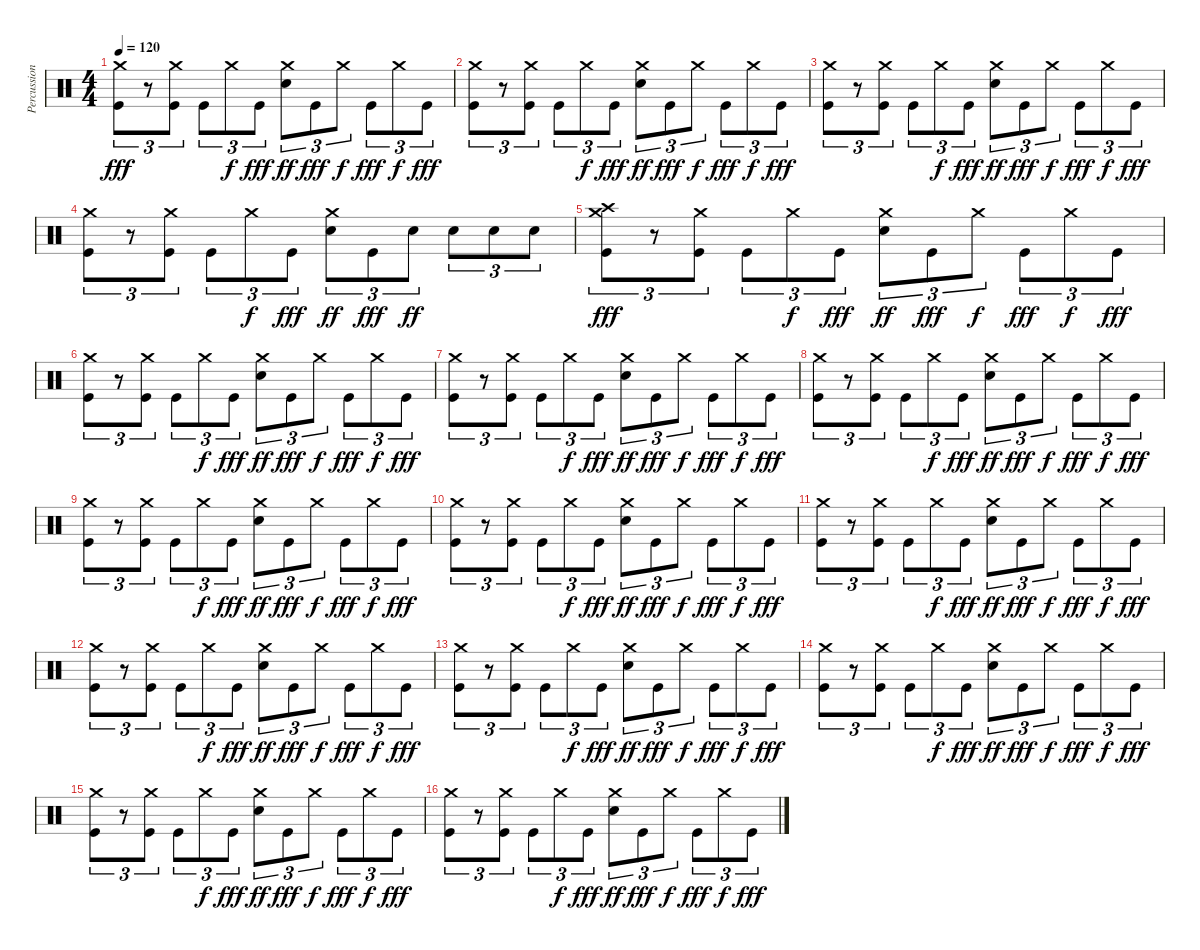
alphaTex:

\track ("Percussion" "Percussion") {instrument percussion}
\staff {score}
\articulation defaults
\ts (4 4)
\tempo 120
\clef neutral
\ks c
("Crash medium (hit)" "Kick (hit)").8{tu (3 2) dy fff} r.8{tu (3 2)} ("Crash medium (hit)" "Kick (hit)").8{tu (3 2)} "Kick (hit)".8{tu (3 2)} "Crash medium (hit)".8{tu (3 2) dy f} "Kick (hit)".8{tu (3 2) dy fff} ("Crash medium (hit)" "Snare (hit) 2").8{tu (3 2) dy ff} "Kick (hit)".8{tu (3 2) dy fff} "Crash medium (hit)".8{tu (3 2) dy f} "Kick (hit)".8{tu (3 2) dy fff} "Crash medium (hit)".8{tu (3 2) dy f} "Kick (hit)".8{tu (3 2) dy fff} |
("Crash medium (hit)" "Kick (hit)").8{tu (3 2)} r.8{tu (3 2)} ("Crash medium (hit)" "Kick (hit)").8{tu (3 2)} "Kick (hit)".8{tu (3 2)} "Crash medium (hit)".8{tu (3 2) dy f} "Kick (hit)".8{tu (3 2) dy fff} ("Crash medium (hit)" "Snare (hit) 2").8{tu (3 2) dy ff} "Kick (hit)".8{tu (3 2) dy fff} "Crash medium (hit)".8{tu (3 2) dy f} "Kick (hit)".8{tu (3 2) dy fff} "Crash medium (hit)".8{tu (3 2) dy f} "Kick (hit)".8{tu (3 2) dy fff} |
("Crash medium (hit)" "Kick (hit)").8{tu (3 2)} r.8{tu (3 2)} ("Crash medium (hit)" "Kick (hit)").8{tu (3 2)} "Kick (hit)".8{tu (3 2)} "Crash medium (hit)".8{tu (3 2) dy f} "Kick (hit)".8{tu (3 2) dy fff} ("Crash medium (hit)" "Snare (hit) 2").8{tu (3 2) dy ff} "Kick (hit)".8{tu (3 2) dy fff} "Crash medium (hit)".8{tu (3 2) dy f} "Kick (hit)".8{tu (3 2) dy fff} "Crash medium (hit)".8{tu (3 2) dy f} "Kick (hit)".8{tu (3 2) dy fff} |
("Crash medium (hit)" "Kick (hit)").8{tu (3 2)} r.8{tu (3 2)} ("Crash medium (hit)" "Kick (hit)").8{tu (3 2)} "Kick (hit)".8{tu (3 2)} "Crash medium (hit)".8{tu (3 2) dy f} "Kick (hit)".8{tu (3 2) dy fff} ("Crash medium (hit)" "Snare (hit) 2").8{tu (3 2) dy ff} "Kick (hit)".8{tu (3 2) dy fff} "Snare (hit) 2".8{tu (3 2) dy ff} "Snare (hit) 2".8{tu (3 2)} "Snare (hit) 2".8{tu (3 2)} "Snare (hit) 2".8{tu (3 2)} |
("Crash high (hit)" "Crash medium (hit)" "Kick (hit)").8{tu (3 2) dy fff} r.8{tu (3 2)} ("Crash medium (hit)" "Kick (hit)").8{tu (3 2)} "Kick (hit)".8{tu (3 2)} "Crash medium (hit)".8{tu (3 2) dy f} "Kick (hit)".8{tu (3 2) dy fff} ("Crash medium (hit)" "Snare (hit) 2").8{tu (3 2) dy ff} "Kick (hit)".8{tu (3 2) dy fff} "Crash medium (hit)".8{tu (3 2) dy f} "Kick (hit)".8{tu (3 2) dy fff} "Crash medium (hit)".8{tu (3 2) dy f} "Kick (hit)".8{tu (3 2) dy fff} |
("Crash medium (hit)" "Kick (hit)").8{tu (3 2)} r.8{tu (3 2)} ("Crash medium (hit)" "Kick (hit)").8{tu (3 2)} "Kick (hit)".8{tu (3 2)} "Crash medium (hit)".8{tu (3 2) dy f} "Kick (hit)".8{tu (3 2) dy fff} ("Crash medium (hit)" "Snare (hit) 2").8{tu (3 2) dy ff} "Kick (hit)".8{tu (3 2) dy fff} "Crash medium (hit)".8{tu (3 2) dy f} "Kick (hit)".8{tu (3 2) dy fff} "Crash medium (hit)".8{tu (3 2) dy f} "Kick (hit)".8{tu (3 2) dy fff} |
("Crash medium (hit)" "Kick (hit)").8{tu (3 2)} r.8{tu (3 2)} ("Crash medium (hit)" "Kick (hit)").8{tu (3 2)} "Kick (hit)".8{tu (3 2)} "Crash medium (hit)".8{tu (3 2) dy f} "Kick (hit)".8{tu (3 2) dy fff} ("Crash medium (hit)" "Snare (hit) 2").8{tu (3 2) dy ff} "Kick (hit)".8{tu (3 2) dy fff} "Crash medium (hit)".8{tu (3 2) dy f} "Kick (hit)".8{tu (3 2) dy fff} "Crash medium (hit)".8{tu (3 2) dy f} "Kick (hit)".8{tu (3 2) dy fff} |
("Crash medium (hit)" "Kick (hit)").8{tu (3 2)} r.8{tu (3 2)} ("Crash medium (hit)" "Kick (hit)").8{tu (3 2)} "Kick (hit)".8{tu (3 2)} "Crash medium (hit)".8{tu (3 2) dy f} "Kick (hit)".8{tu (3 2) dy fff} ("Crash medium (hit)" "Snare (hit) 2").8{tu (3 2) dy ff} "Kick (hit)".8{tu (3 2) dy fff} "Crash medium (hit)".8{tu (3 2) dy f} "Kick (hit)".8{tu (3 2) dy fff} "Crash medium (hit)".8{tu (3 2) dy f} "Kick (hit)".8{tu (3 2) dy fff} |
("Crash medium (hit)" "Kick (hit)").8{tu (3 2)} r.8{tu (3 2)} ("Crash medium (hit)" "Kick (hit)").8{tu (3 2)} "Kick (hit)".8{tu (3 2)} "Crash medium (hit)".8{tu (3 2) dy f} "Kick (hit)".8{tu (3 2) dy fff} ("Crash medium (hit)" "Snare (hit) 2").8{tu (3 2) dy ff} "Kick (hit)".8{tu (3 2) dy fff} "Crash medium (hit)".8{tu (3 2) dy f} "Kick (hit)".8{tu (3 2) dy fff} "Crash medium (hit)".8{tu (3 2) dy f} "Kick (hit)".8{tu (3 2) dy fff} |
("Crash medium (hit)" "Kick (hit)").8{tu (3 2)} r.8{tu (3 2)} ("Crash medium (hit)" "Kick (hit)").8{tu (3 2)} "Kick (hit)".8{tu (3 2)} "Crash medium (hit)".8{tu (3 2) dy f} "Kick (hit)".8{tu (3 2) dy fff} ("Crash medium (hit)" "Snare (hit) 2").8{tu (3 2) dy ff} "Kick (hit)".8{tu (3 2) dy fff} "Crash medium (hit)".8{tu (3 2) dy f} "Kick (hit)".8{tu (3 2) dy fff} "Crash medium (hit)".8{tu (3 2) dy f} "Kick (hit)".8{tu (3 2) dy fff} |
("Crash medium (hit)" "Kick (hit)").8{tu (3 2)} r.8{tu (3 2)} ("Crash medium (hit)" "Kick (hit)").8{tu (3 2)} "Kick (hit)".8{tu (3 2)} "Crash medium (hit)".8{tu (3 2) dy f} "Kick (hit)".8{tu (3 2) dy fff} ("Crash medium (hit)" "Snare (hit) 2").8{tu (3 2) dy ff} "Kick (hit)".8{tu (3 2) dy fff} "Crash medium (hit)".8{tu (3 2) dy f} "Kick (hit)".8{tu (3 2) dy fff} "Crash medium (hit)".8{tu (3 2) dy f} "Kick (hit)".8{tu (3 2) dy fff} |
("Crash medium (hit)" "Kick (hit)").8{tu (3 2)} r.8{tu (3 2)} ("Crash medium (hit)" "Kick (hit)").8{tu (3 2)} "Kick (hit)".8{tu (3 2)} "Crash medium (hit)".8{tu (3 2) dy f} "Kick (hit)".8{tu (3 2) dy fff} ("Crash medium (hit)" "Snare (hit) 2").8{tu (3 2) dy ff} "Kick (hit)".8{tu (3 2) dy fff} "Crash medium (hit)".8{tu (3 2) dy f} "Kick (hit)".8{tu (3 2) dy fff} "Crash medium (hit)".8{tu (3 2) dy f} "Kick (hit)".8{tu (3 2) dy fff} |
("Crash medium (hit)" "Kick (hit)").8{tu (3 2)} r.8{tu (3 2)} ("Crash medium (hit)" "Kick (hit)").8{tu (3 2)} "Kick (hit)".8{tu (3 2)} "Crash medium (hit)".8{tu (3 2) dy f} "Kick (hit)".8{tu (3 2) dy fff} ("Crash medium (hit)" "Snare (hit) 2").8{tu (3 2) dy ff} "Kick (hit)".8{tu (3 2) dy fff} "Crash medium (hit)".8{tu (3 2) dy f} "Kick (hit)".8{tu (3 2) dy fff} "Crash medium (hit)".8{tu (3 2) dy f} "Kick (hit)".8{tu (3 2) dy fff} |
("Crash medium (hit)" "Kick (hit)").8{tu (3 2)} r.8{tu (3 2)} ("Crash medium (hit)" "Kick (hit)").8{tu (3 2)} "Kick (hit)".8{tu (3 2)} "Crash medium (hit)".8{tu (3 2) dy f} "Kick (hit)".8{tu (3 2) dy fff} ("Crash medium (hit)" "Snare (hit) 2").8{tu (3 2) dy ff} "Kick (hit)".8{tu (3 2) dy fff} "Crash medium (hit)".8{tu (3 2) dy f} "Kick (hit)".8{tu (3 2) dy fff} "Crash medium (hit)".8{tu (3 2) dy f} "Kick (hit)".8{tu (3 2) dy fff} |
("Crash medium (hit)" "Kick (hit)").8{tu (3 2)} r.8{tu (3 2)} ("Crash medium (hit)" "Kick (hit)").8{tu (3 2)} "Kick (hit)".8{tu (3 2)} "Crash medium (hit)".8{tu (3 2) dy f} "Kick (hit)".8{tu (3 2) dy fff} ("Crash medium (hit)" "Snare (hit) 2").8{tu (3 2) dy ff} "Kick (hit)".8{tu (3 2) dy fff} "Crash medium (hit)".8{tu (3 2) dy f} "Kick (hit)".8{tu (3 2) dy fff} "Crash medium (hit)".8{tu (3 2) dy f} "Kick (hit)".8{tu (3 2) dy fff} |
("Crash medium (hit)" "Kick (hit)").8{tu (3 2)} r.8{tu (3 2)} ("Crash medium (hit)" "Kick (hit)").8{tu (3 2)} "Kick (hit)".8{tu (3 2)} "Crash medium (hit)".8{tu (3 2) dy f} "Kick (hit)".8{tu (3 2) dy fff} ("Crash medium (hit)" "Snare (hit) 2").8{tu (3 2) dy ff} "Kick (hit)".8{tu (3 2) dy fff} "Crash medium (hit)".8{tu (3 2) dy f} "Kick (hit)".8{tu (3 2) dy fff} "Crash medium (hit)".8{tu (3 2) dy f} "Kick (hit)".8{tu (3 2) dy fff}
